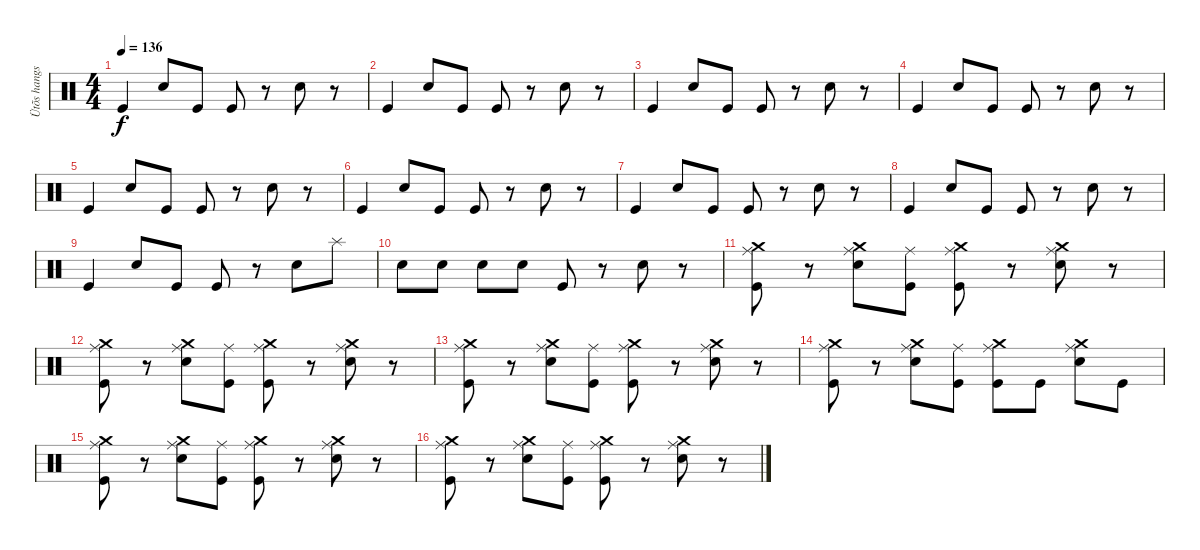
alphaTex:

\track ("Ütõs hangszer" "Ütõs hangs") {instrument percussion}
\staff {score}
\articulation defaults
\ts (4 4)
\tempo 136
\clef neutral
\ks c "Kick (hit)".4{dy f} "Electric Snare (hit)".8 "Kick (hit)".8 "Kick (hit)".8
r.8 "Electric Snare (hit)".8 r.8 |
"Kick (hit)".4 "Electric Snare (hit)".8 "Kick (hit)".8 "Kick (hit)".8 r.8 "Electric Snare (hit)".8 r.8 |
"Kick (hit)".4 "Electric Snare (hit)".8 "Kick (hit)".8 "Kick (hit)".8 r.8 "Electric Snare (hit)".8 r.8 |
"Kick (hit)".4 "Electric Snare (hit)".8 "Kick (hit)".8 "Kick (hit)".8 r.8 "Electric Snare (hit)".8 r.8 |
"Kick (hit)".4 "Electric Snare (hit)".8 "Kick (hit)".8 "Kick (hit)".8 r.8 "Electric Snare (hit)".8 r.8 |
"Kick (hit)".4 "Electric Snare (hit)".8 "Kick (hit)".8 "Kick (hit)".8 r.8 "Electric Snare (hit)".8 r.8 |
"Kick (hit)".4 "Electric Snare (hit)".8 "Kick (hit)".8 "Kick (hit)".8 r.8 "Electric Snare (hit)".8 r.8 |
"Kick (hit)".4 "Electric Snare (hit)".8 "Kick (hit)".8 "Kick (hit)".8 r.8 "Electric Snare (hit)".8 r.8 |
"Kick (hit)".4 "Electric Snare (hit)".8 "Kick (hit)".8 "Kick (hit)".8 r.8 "Electric Snare (hit)".8 "Splash (hit)".8 |
"Electric Snare (hit)".8 "Electric Snare (hit)".8 "Electric Snare (hit)".8 "Electric Snare (hit)".8 "Kick (hit)".8 r.8 "Electric Snare (hit)".8 r.8 |
("Crash medium (hit)" "Ride (middle)" "Kick (hit)").8 r.8 ("Crash medium (hit)" "Ride (middle)" "Electric Snare (hit)").8 ("Ride (middle)" "Kick (hit)").8 ("Crash medium (hit)" "Ride (middle)" "Kick (hit)").8 r.8 ("Crash medium (hit)" "Ride (middle)" "Electric Snare (hit)").8 r.8 |
("Crash medium (hit)" "Ride (middle)" "Kick (hit)").8 r.8 ("Crash medium (hit)" "Ride (middle)" "Electric Snare (hit)").8 ("Ride (middle)" "Kick (hit)").8 ("Crash medium (hit)" "Ride (middle)" "Kick (hit)").8 r.8 ("Crash medium (hit)" "Ride (middle)" "Electric Snare (hit)").8 r.8 |
("Crash medium (hit)" "Ride (middle)" "Kick (hit)").8 r.8 ("Crash medium (hit)" "Ride (middle)" "Electric Snare (hit)").8 ("Ride (middle)" "Kick (hit)").8 ("Crash medium (hit)" "Ride (middle)" "Kick (hit)").8 r.8 ("Crash medium (hit)" "Ride (middle)" "Electric Snare (hit)").8 r.8 |
("Crash medium (hit)" "Ride (middle)" "Kick (hit)").8 r.8 ("Crash medium (hit)" "Ride (middle)" "Electric Snare (hit)").8 ("Ride (middle)" "Kick (hit)").8 ("Crash medium (hit)" "Ride (middle)" "Kick (hit)").8 "Kick (hit)".8 ("Crash medium (hit)" "Ride (middle)" "Electric Snare (hit)").8 "Kick (hit)".8 |
("Crash medium (hit)" "Ride (middle)" "Kick (hit)").8 r.8 ("Crash medium (hit)" "Ride (middle)" "Electric Snare (hit)").8 ("Ride (middle)" "Kick (hit)").8 ("Crash medium (hit)" "Ride (middle)" "Kick (hit)").8 r.8 ("Crash medium (hit)" "Ride (middle)" "Electric Snare (hit)").8 r.8 |
("Crash medium (hit)" "Ride (middle)" "Kick (hit)").8 r.8 ("Crash medium (hit)" "Ride (middle)" "Electric Snare (hit)").8 ("Ride (middle)" "Kick (hit)").8 ("Crash medium (hit)" "Ride (middle)" "Kick (hit)").8 r.8 ("Crash medium (hit)" "Ride (middle)" "Electric Snare (hit)").8 r.8
